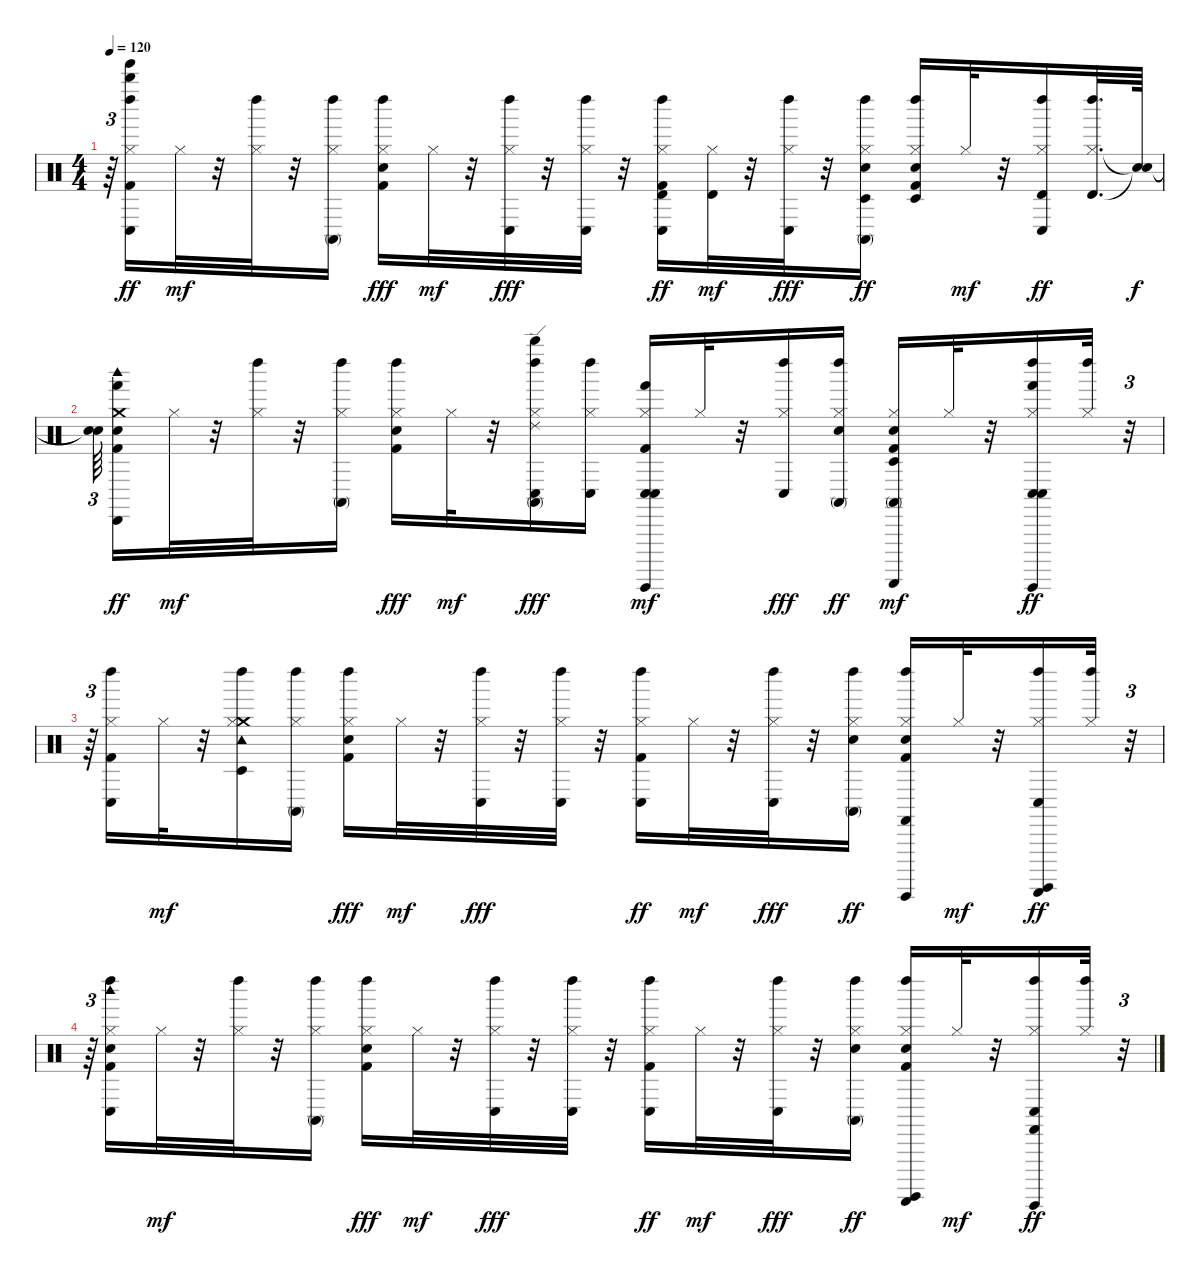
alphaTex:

\track "" {instrument percussion}
\staff {score}
\articulation defaults
\ts (4 4)
\tempo 120
\clef neutral
\ks c
r.64{tu (3 2) dy ff} ("Whistle high (hit)" "Tinkle Bell (hit)" "Kick (hit) 2" "Conga low (hit)" "Hi-Hat (closed)" "Left Maraca (hit)").16 "Hi-Hat (closed)".32{dy mf} r.32 ("Hi-Hat (closed)" "Left Maraca (hit)").32 r.32 ("Conga high (mute)" "Hi-Hat (closed)" "Left Maraca (hit)").16 ("Kick (hit) 2" "Electric Snare (hit)" "Hi-Hat (closed)" "Left Maraca (hit)").16{dy fff} "Hi-Hat (closed)".32{dy mf} r.32 ("Conga low (hit)" "Hi-Hat (closed)" "Left Maraca (hit)").32{dy fff} r.32 ("Conga low (hit)" "Hi-Hat (closed)" "Left Maraca (hit)").32 r.32 ("Kick (hit) 2" "Timbale high (hit)" "Conga low (hit)" "Hi-Hat (closed)" "Left Maraca (hit)").16{dy ff} ("Timbale high (hit)" "Hi-Hat (closed)").32{dy mf} r.32 ("Conga low (hit)" "Hi-Hat (closed)" "Left Maraca (hit)").32{dy fff} r.32 ("Electric Snare (hit)" "Timbale low (hit)" "Conga high (mute)" "Hi-Hat (closed)" "Left Maraca (hit)").16{dy ff} ("Kick (hit) 2" "Electric Snare (hit)" "Timbale low (hit)" "Hi-Hat (closed)" "Left Maraca (hit)").16 "Hi-Hat (closed)".32{dy mf} r.32 ("Timbale high (hit)" "Conga low (hit)" "Hi-Hat (closed)" "Left Maraca (hit)").16{dy ff} ("Timbale high (hit)" "Hi-Hat (closed)" "Left Maraca (hit)").32{d} ("Snare (hit)"{t} "Snare (hit)"{t}).64{dy f} |
("Snare (hit)"{t} "Snare (hit)"{t}).64{tu (3 2) beam splitsecondary} ("Hand (hit)" "Crash medium (hit)" "Cabasa (hit)" "Woodblock high (hit)" "Snare (hit)" "Kick (hit) 2").16{dy ff} "Hi-Hat (closed)".32{dy mf} r.32 ("Hi-Hat (closed)" "Left Maraca (hit)").32 r.32 ("Conga high (mute)" "Hi-Hat (closed)" "Left Maraca (hit)").16 ("Kick (hit) 2" "Electric Snare (hit)" "Hi-Hat (closed)" "Left Maraca (hit)").16{dy fff} "Hi-Hat (closed)".32{dy mf} r.32 ("Conga high (mute)" "Ride (edge) 2" "Whistle high (hit)" "Conga low (hit)" "Hi-Hat (closed)" "Left Maraca (hit)").16{dy fff} ("Conga low (hit)" "Hi-Hat (closed)" "Left Maraca (hit)").16 ("Conga low (hit)" "Hand (hit)" "Guiro (hit)" "Kick (hit) 2" "Conga low (hit)" "Hi-Hat (closed)").16{dy mf} "Hi-Hat (closed)".32 r.32 ("Conga low (hit)" "Hi-Hat (closed)" "Left Maraca (hit)").16{dy fff} ("Electric Snare (hit)" "Conga high (mute)" "Hi-Hat (closed)" "Left Maraca (hit)").16{dy ff} ("Timbale low (hit)" "Conga high (mute)" "Guiro (scrap-return)" "Kick (hit) 2" "Electric Snare (hit)" "Hi-Hat (closed)").16{dy mf} "Hi-Hat (closed)".32 r.32 ("Conga low (hit)" "Hand (hit)" "Guiro (hit)" "Conga low (hit)" "Hi-Hat (closed)" "Left Maraca (hit)").16{dy ff} ("Hi-Hat (closed)" "Left Maraca (hit)").32 r.32{tu (3 2)} |
r.64{tu (3 2)} ("Kick (hit) 2" "Conga low (hit)" "Hi-Hat (closed)" "Left Maraca (hit)").16 "Hi-Hat (closed)".32{dy mf} r.32 ("Crash medium (hit)" "Tambourine (hit)" "Timbale low (hit)" "Hi-Hat (closed)" "Left Maraca (hit)").16 ("Conga high (mute)" "Hi-Hat (closed)" "Left Maraca (hit)").16 ("Kick (hit) 2" "Electric Snare (hit)" "Hi-Hat (closed)" "Left Maraca (hit)").16{dy fff} "Hi-Hat (closed)".32{dy mf} r.32 ("Conga low (hit)" "Hi-Hat (closed)" "Left Maraca (hit)").32{dy fff} r.32 ("Conga low (hit)" "Hi-Hat (closed)" "Left Maraca (hit)").32 r.32 ("Kick (hit) 2" "Conga low (hit)" "Hi-Hat (closed)" "Left Maraca (hit)").16{dy ff} "Hi-Hat (closed)".32{dy mf} r.32 ("Conga low (hit)" "Hi-Hat (closed)" "Left Maraca (hit)").32{dy fff} r.32 ("Electric Snare (hit)" "Conga high (mute)" "Hi-Hat (closed)" "Left Maraca (hit)").16{dy ff} ("Guiro (hit)" "Castanets (hit)" "Kick (hit) 2" "Electric Snare (hit)" "Hi-Hat (closed)" "Left Maraca (hit)").16 "Hi-Hat (closed)".32{dy mf} r.32 ("Guiro (scrap-return)" "Surdo (hit)" "Conga low (hit)" "Hi-Hat (closed)" "Left Maraca (hit)").16{dy ff} ("Hi-Hat (closed)" "Left Maraca (hit)").32 r.32{tu (3 2)} |
r.64{tu (3 2)} ("Woodblock high (hit)" "Snare (hit)" "Kick (hit) 2" "Conga low (hit)" "Hi-Hat (closed)" "Left Maraca (hit)").16 "Hi-Hat (closed)".32{dy mf} r.32 ("Hi-Hat (closed)" "Left Maraca (hit)").32 r.32 ("Conga high (mute)" "Hi-Hat (closed)" "Left Maraca (hit)").16 ("Kick (hit) 2" "Electric Snare (hit)" "Hi-Hat (closed)" "Left Maraca (hit)").16{dy fff} "Hi-Hat (closed)".32{dy mf} r.32 ("Conga low (hit)" "Hi-Hat (closed)" "Left Maraca (hit)").32{dy fff} r.32 ("Conga low (hit)" "Hi-Hat (closed)" "Left Maraca (hit)").32 r.32 ("Kick (hit) 2" "Conga low (hit)" "Hi-Hat (closed)" "Left Maraca (hit)").16{dy ff} "Hi-Hat (closed)".32{dy mf} r.32 ("Conga low (hit)" "Hi-Hat (closed)" "Left Maraca (hit)").32{dy fff} r.32 ("Electric Snare (hit)" "Conga high (mute)" "Hi-Hat (closed)" "Left Maraca (hit)").16{dy ff} ("Guiro (scrap-return)" "Surdo (hit)" "Kick (hit) 2" "Electric Snare (hit)" "Hi-Hat (closed)" "Left Maraca (hit)").16 "Hi-Hat (closed)".32{dy mf} r.32 ("Guiro (hit)" "Castanets (hit)" "Conga low (hit)" "Hi-Hat (closed)" "Left Maraca (hit)").16{dy ff} ("Hi-Hat (closed)" "Left Maraca (hit)").32 r.32{tu (3 2)}
